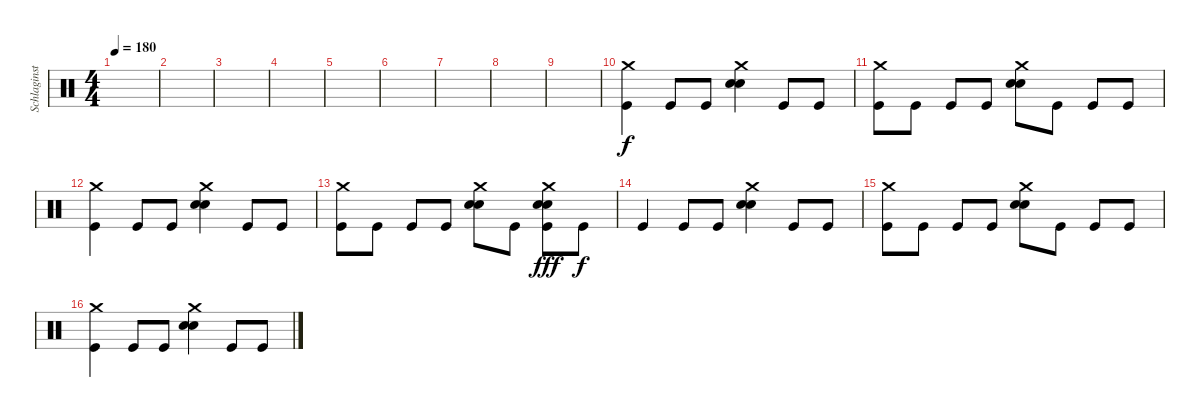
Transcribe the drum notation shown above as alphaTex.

\track ("Schlaginstrumente - Auswahl" "Schlaginst") {instrument percussion}
\staff {score}
\articulation defaults
\ts (4 4)
\tempo 180
\clef neutral
\ks c
|
|
|
|
|
|
|
|
|
("Crash medium (hit)" "Kick (hit)").4 "Kick (hit)".8 "Kick (hit)".8 ("Snare (hit) 2" "Electric Snare (hit)" "Crash medium (hit)").4 "Kick (hit)".8 "Kick (hit)".8 |
("Crash medium (hit)" "Kick (hit)").8 "Kick (hit)".8 "Kick (hit)".8 "Kick (hit)".8 ("Snare (hit) 2" "Electric Snare (hit)" "Crash medium (hit)").8 "Kick (hit)".8 "Kick (hit)".8 "Kick (hit)".8 |
("Crash medium (hit)" "Kick (hit)").4 "Kick (hit)".8 "Kick (hit)".8 ("Snare (hit) 2" "Electric Snare (hit)" "Crash medium (hit)").4 "Kick (hit)".8 "Kick (hit)".8 |
("Crash medium (hit)" "Kick (hit)").8 "Kick (hit)".8 "Kick (hit)".8 "Kick (hit)".8 ("Snare (hit) 2" "Electric Snare (hit)" "Crash medium (hit)").8 "Kick (hit)".8 ("Kick (hit)" "Snare (hit) 2" "Electric Snare (hit)" "Crash medium (hit)").8{dy fff} "Kick (hit)".8{dy f} |
"Kick (hit)".4 "Kick (hit)".8 "Kick (hit)".8 ("Snare (hit) 2" "Electric Snare (hit)" "Crash medium (hit)").4 "Kick (hit)".8 "Kick (hit)".8 |
("Crash medium (hit)" "Kick (hit)").8 "Kick (hit)".8 "Kick (hit)".8 "Kick (hit)".8 ("Snare (hit) 2" "Electric Snare (hit)" "Crash medium (hit)").8 "Kick (hit)".8 "Kick (hit)".8 "Kick (hit)".8 |
("Crash medium (hit)" "Kick (hit)").4 "Kick (hit)".8 "Kick (hit)".8 ("Snare (hit) 2" "Electric Snare (hit)" "Crash medium (hit)").4 "Kick (hit)".8 "Kick (hit)".8
